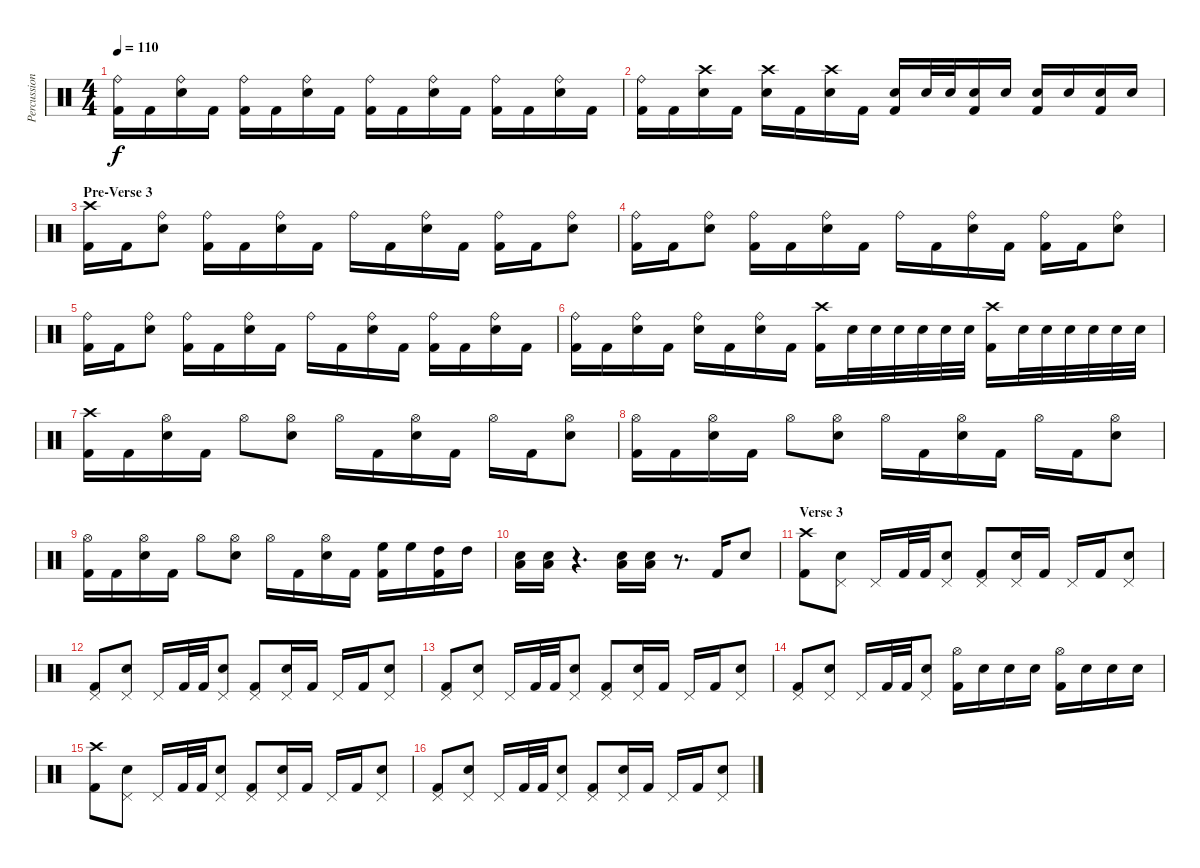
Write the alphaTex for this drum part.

\track ("Percussion" "Percussion") {instrument percussion}
\staff {score}
\articulation defaults
\ts (4 4)
\tempo 110
\clef neutral
\ks c
("Kick (hit) 2" "Ride (bell)").16{dy f} "Kick (hit) 2".16 ("Electric Snare (hit)" "Ride (bell)").16 "Kick (hit) 2".16 ("Kick (hit) 2" "Ride (bell)").16 "Kick (hit) 2".16 ("Electric Snare (hit)" "Ride (bell)").16 "Kick (hit) 2".16 ("Kick (hit) 2" "Ride (bell)").16 "Kick (hit) 2".16 ("Electric Snare (hit)" "Ride (bell)").16 "Kick (hit) 2".16 ("Kick (hit) 2" "Ride (bell)").16 "Kick (hit) 2".16 ("Electric Snare (hit)" "Ride (bell)").16 "Kick (hit) 2".16 |
("Kick (hit) 2" "Ride (bell)").16 "Kick (hit) 2".16 ("Electric Snare (hit)" "Crash high (hit)").16 "Kick (hit) 2".16 ("Electric Snare (hit)" "Crash high (hit)").16 "Kick (hit) 2".16 ("Electric Snare (hit)" "Crash high (hit)").16 "Kick (hit) 2".16 ("Electric Snare (hit)" "Kick (hit) 2").16 "Electric Snare (hit)".32 "Electric Snare (hit)".32 ("Electric Snare (hit)" "Kick (hit) 2").16 "Electric Snare (hit)".16 ("Electric Snare (hit)" "Kick (hit) 2").16 "Electric Snare (hit)".16 ("Electric Snare (hit)" "Kick (hit) 2").16 "Electric Snare (hit)".16 |
\section ("" "Pre-Verse 3")
("Kick (hit) 2" "Crash high (hit)").16 "Kick (hit) 2".16 ("Electric Snare (hit)" "Ride (bell)").8 ("Kick (hit) 2" "Ride (bell)").16 "Kick (hit) 2".16 ("Electric Snare (hit)" "Ride (bell)").16 "Kick (hit) 2".16 "Ride (bell)".16 "Kick (hit) 2".16 ("Electric Snare (hit)" "Ride (bell)").16 "Kick (hit) 2".16 ("Kick (hit) 2" "Ride (bell)").16 "Kick (hit) 2".16 ("Electric Snare (hit)" "Ride (bell)").8 |
("Kick (hit) 2" "Ride (bell)").16 "Kick (hit) 2".16 ("Electric Snare (hit)" "Ride (bell)").8 ("Kick (hit) 2" "Ride (bell)").16 "Kick (hit) 2".16 ("Electric Snare (hit)" "Ride (bell)").16 "Kick (hit) 2".16 "Ride (bell)".16 "Kick (hit) 2".16 ("Electric Snare (hit)" "Ride (bell)").16 "Kick (hit) 2".16 ("Kick (hit) 2" "Ride (bell)").16 "Kick (hit) 2".16 ("Electric Snare (hit)" "Ride (bell)").8 |
("Kick (hit) 2" "Ride (bell)").16 "Kick (hit) 2".16 ("Electric Snare (hit)" "Ride (bell)").8 ("Kick (hit) 2" "Ride (bell)").16 "Kick (hit) 2".16 ("Electric Snare (hit)" "Ride (bell)").16 "Kick (hit) 2".16 "Ride (bell)".16 "Kick (hit) 2".16 ("Electric Snare (hit)" "Ride (bell)").16 "Kick (hit) 2".16 ("Kick (hit) 2" "Ride (bell)").16 "Kick (hit) 2".16 ("Electric Snare (hit)" "Ride (bell)").16 "Kick (hit) 2".16 |
("Kick (hit) 2" "Ride (bell)").16 "Kick (hit) 2".16 ("Electric Snare (hit)" "Ride (bell)").16 "Kick (hit) 2".16 ("Electric Snare (hit)" "Ride (bell)").16 "Kick (hit) 2".16 ("Electric Snare (hit)" "Ride (bell)").16 "Kick (hit) 2".16 ("Kick (hit) 2" "Crash high (hit)").16 "Electric Snare (hit)".32 "Electric Snare (hit)".32 "Electric Snare (hit)".32 "Electric Snare (hit)".32 "Electric Snare (hit)".32 "Electric Snare (hit)".32 ("Kick (hit) 2" "Crash high (hit)").16 "Electric Snare (hit)".32 "Electric Snare (hit)".32 "Electric Snare (hit)".32 "Electric Snare (hit)".32 "Electric Snare (hit)".32 "Electric Snare (hit)".32 |
("Kick (hit) 2" "Crash high (hit)").16 "Kick (hit) 2".16 ("Electric Snare (hit)" "Hi-Hat (open)").16 "Kick (hit) 2".16 "Hi-Hat (open)".8 ("Electric Snare (hit)" "Hi-Hat (open)").8 "Hi-Hat (open)".16 "Kick (hit) 2".16 ("Electric Snare (hit)" "Hi-Hat (open)").16 "Kick (hit) 2".16 "Hi-Hat (open)".16 "Kick (hit) 2".16 ("Electric Snare (hit)" "Hi-Hat (open)").8 |
("Kick (hit) 2" "Hi-Hat (open)").16 "Kick (hit) 2".16 ("Electric Snare (hit)" "Hi-Hat (open)").16 "Kick (hit) 2".16 "Hi-Hat (open)".8 ("Electric Snare (hit)" "Hi-Hat (open)").8 "Hi-Hat (open)".16 "Kick (hit) 2".16 ("Electric Snare (hit)" "Hi-Hat (open)").16 "Kick (hit) 2".16 "Hi-Hat (open)".16 "Kick (hit) 2".16 ("Electric Snare (hit)" "Hi-Hat (open)").8 |
("Kick (hit) 2" "Hi-Hat (open)").16 "Kick (hit) 2".16 ("Electric Snare (hit)" "Hi-Hat (open)").16 "Kick (hit) 2".16 "Hi-Hat (open)".8 ("Electric Snare (hit)" "Hi-Hat (open)").8 "Hi-Hat (open)".16 "Kick (hit) 2".16 ("Electric Snare (hit)" "Hi-Hat (open)").16 "Kick (hit) 2".16 ("High Floor Tom (hit)" "Kick (hit) 2").16 "High Floor Tom (hit)".16 ("High Tom (hit)" "Kick (hit) 2").16 "High Tom (hit)".16 |
("Electric Snare (hit)" "Low Tom (hit)").16 ("Electric Snare (hit)" "Low Tom (hit)").16 r.4{d} ("Electric Snare (hit)" "Low Tom (hit)").16 ("Electric Snare (hit)" "Low Tom (hit)").16 r.8{d} "Kick (hit) 2".16 "Electric Snare (hit)".8 |
\section ("" "Verse 3")
("Kick (hit) 2" "Crash high (hit)").8 ("Electric Snare (hit)" "Pedal Hi-Hat (hit)").8 "Pedal Hi-Hat (hit)".16 "Kick (hit) 2".32 "Kick (hit) 2".32 ("Electric Snare (hit)" "Pedal Hi-Hat (hit)").8 ("Kick (hit) 2" "Pedal Hi-Hat (hit)").8 ("Electric Snare (hit)" "Pedal Hi-Hat (hit)").16 "Kick (hit) 2".16 "Pedal Hi-Hat (hit)".16 "Kick (hit) 2".16 ("Electric Snare (hit)" "Pedal Hi-Hat (hit)").8 |
("Kick (hit) 2" "Pedal Hi-Hat (hit)").8 ("Electric Snare (hit)" "Pedal Hi-Hat (hit)").8 "Pedal Hi-Hat (hit)".16 "Kick (hit) 2".32 "Kick (hit) 2".32 ("Electric Snare (hit)" "Pedal Hi-Hat (hit)").8 ("Kick (hit) 2" "Pedal Hi-Hat (hit)").8 ("Electric Snare (hit)" "Pedal Hi-Hat (hit)").16 "Kick (hit) 2".16 "Pedal Hi-Hat (hit)".16 "Kick (hit) 2".16 ("Electric Snare (hit)" "Pedal Hi-Hat (hit)").8 |
("Kick (hit) 2" "Pedal Hi-Hat (hit)").8 ("Electric Snare (hit)" "Pedal Hi-Hat (hit)").8 "Pedal Hi-Hat (hit)".16 "Kick (hit) 2".32 "Kick (hit) 2".32 ("Electric Snare (hit)" "Pedal Hi-Hat (hit)").8 ("Kick (hit) 2" "Pedal Hi-Hat (hit)").8 ("Electric Snare (hit)" "Pedal Hi-Hat (hit)").16 "Kick (hit) 2".16 "Pedal Hi-Hat (hit)".16 "Kick (hit) 2".16 ("Electric Snare (hit)" "Pedal Hi-Hat (hit)").8 |
("Kick (hit) 2" "Pedal Hi-Hat (hit)").8 ("Electric Snare (hit)" "Pedal Hi-Hat (hit)").8 "Pedal Hi-Hat (hit)".16 "Kick (hit) 2".32 "Kick (hit) 2".32 ("Electric Snare (hit)" "Pedal Hi-Hat (hit)").8 ("Kick (hit) 2" "Hi-Hat (open)").16 "Electric Snare (hit)".16 "Electric Snare (hit)".16 "Electric Snare (hit)".16 ("Kick (hit) 2" "Hi-Hat (open)").16 "Electric Snare (hit)".16 "Electric Snare (hit)".16 "Electric Snare (hit)".16 |
("Kick (hit) 2" "Crash high (hit)").8 ("Electric Snare (hit)" "Pedal Hi-Hat (hit)").8 "Pedal Hi-Hat (hit)".16 "Kick (hit) 2".32 "Kick (hit) 2".32 ("Electric Snare (hit)" "Pedal Hi-Hat (hit)").8 ("Kick (hit) 2" "Pedal Hi-Hat (hit)").8 ("Electric Snare (hit)" "Pedal Hi-Hat (hit)").16 "Kick (hit) 2".16 "Pedal Hi-Hat (hit)".16 "Kick (hit) 2".16 ("Electric Snare (hit)" "Pedal Hi-Hat (hit)").8 |
("Kick (hit) 2" "Pedal Hi-Hat (hit)").8 ("Electric Snare (hit)" "Pedal Hi-Hat (hit)").8 "Pedal Hi-Hat (hit)".16 "Kick (hit) 2".32 "Kick (hit) 2".32 ("Electric Snare (hit)" "Pedal Hi-Hat (hit)").8 ("Kick (hit) 2" "Pedal Hi-Hat (hit)").8 ("Electric Snare (hit)" "Pedal Hi-Hat (hit)").16 "Kick (hit) 2".16 "Pedal Hi-Hat (hit)".16 "Kick (hit) 2".16 ("Electric Snare (hit)" "Pedal Hi-Hat (hit)").8
